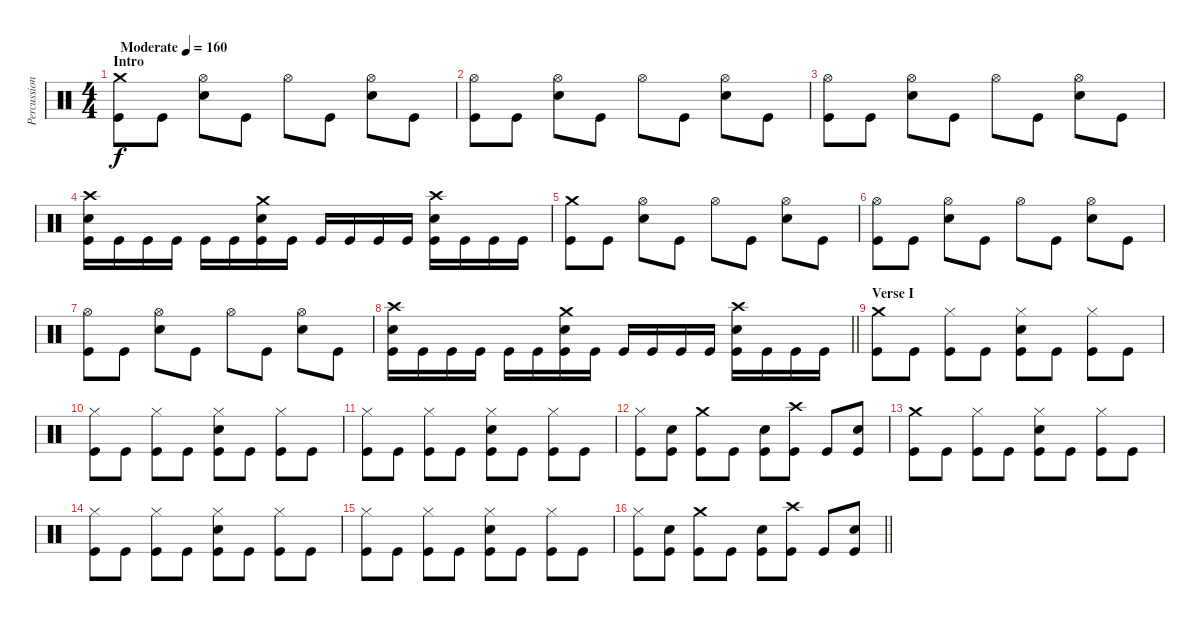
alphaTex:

\track ("Percussion" "Percussion") {instrument percussion}
\staff {score}
\articulation defaults
\ts (4 4)
\section ("" "Intro")
\tempo (160 "Moderate")
\clef neutral
\ks c
("Crash medium (hit)" "Kick (hit)").8{dy f} "Kick (hit)".8 ("Hi-Hat (open)" "Electric Snare (hit)").8 "Kick (hit)".8 "Hi-Hat (open)".8 "Kick (hit)".8 ("Hi-Hat (open)" "Electric Snare (hit)").8 "Kick (hit)".8 |
("Hi-Hat (open)" "Kick (hit)").8 "Kick (hit)".8 ("Hi-Hat (open)" "Electric Snare (hit)").8 "Kick (hit)".8 "Hi-Hat (open)".8 "Kick (hit)".8 ("Hi-Hat (open)" "Electric Snare (hit)").8 "Kick (hit)".8 |
("Hi-Hat (open)" "Kick (hit)").8 "Kick (hit)".8 ("Hi-Hat (open)" "Electric Snare (hit)").8 "Kick (hit)".8 "Hi-Hat (open)".8 "Kick (hit)".8 ("Hi-Hat (open)" "Electric Snare (hit)").8 "Kick (hit)".8 |
("Crash high (hit)" "Electric Snare (hit)" "Kick (hit)").16 "Kick (hit)".16 "Kick (hit)".16 "Kick (hit)".16 "Kick (hit)".16 "Kick (hit)".16 ("Crash medium (hit)" "Electric Snare (hit)" "Kick (hit)").16 "Kick (hit)".16 "Kick (hit)".16 "Kick (hit)".16 "Kick (hit)".16 "Kick (hit)".16 ("Crash high (hit)" "Electric Snare (hit)" "Kick (hit)").16 "Kick (hit)".16 "Kick (hit)".16 "Kick (hit)".16 |
("Crash medium (hit)" "Kick (hit)").8 "Kick (hit)".8 ("Hi-Hat (open)" "Electric Snare (hit)").8 "Kick (hit)".8 "Hi-Hat (open)".8 "Kick (hit)".8 ("Hi-Hat (open)" "Electric Snare (hit)").8 "Kick (hit)".8 |
("Hi-Hat (open)" "Kick (hit)").8 "Kick (hit)".8 ("Hi-Hat (open)" "Electric Snare (hit)").8 "Kick (hit)".8 "Hi-Hat (open)".8 "Kick (hit)".8 ("Hi-Hat (open)" "Electric Snare (hit)").8 "Kick (hit)".8 |
("Hi-Hat (open)" "Kick (hit)").8 "Kick (hit)".8 ("Hi-Hat (open)" "Electric Snare (hit)").8 "Kick (hit)".8 "Hi-Hat (open)".8 "Kick (hit)".8 ("Hi-Hat (open)" "Electric Snare (hit)").8 "Kick (hit)".8 |
\barLineRight lightlight
("Crash high (hit)" "Electric Snare (hit)" "Kick (hit)").16 "Kick (hit)".16 "Kick (hit)".16 "Kick (hit)".16 "Kick (hit)".16 "Kick (hit)".16 ("Crash medium (hit)" "Electric Snare (hit)" "Kick (hit)").16 "Kick (hit)".16 "Kick (hit)".16 "Kick (hit)".16 "Kick (hit)".16 "Kick (hit)".16 ("Crash high (hit)" "Electric Snare (hit)" "Kick (hit)").16 "Kick (hit)".16 "Kick (hit)".16 "Kick (hit)".16 |
\section ("" "Verse I")
("Crash medium (hit)" "Kick (hit)").8 "Kick (hit)".8 ("Hi-Hat (closed)" "Kick (hit)").8 "Kick (hit)".8 ("Hi-Hat (closed)" "Electric Snare (hit)" "Kick (hit)").8 "Kick (hit)".8 ("Hi-Hat (closed)" "Kick (hit)").8 "Kick (hit)".8 |
("Hi-Hat (closed)" "Kick (hit)").8 "Kick (hit)".8 ("Hi-Hat (closed)" "Kick (hit)").8 "Kick (hit)".8 ("Hi-Hat (closed)" "Electric Snare (hit)" "Kick (hit)").8 "Kick (hit)".8 ("Hi-Hat (closed)" "Kick (hit)").8 "Kick (hit)".8 |
("Hi-Hat (closed)" "Kick (hit)").8 "Kick (hit)".8 ("Hi-Hat (closed)" "Kick (hit)").8 "Kick (hit)".8 ("Hi-Hat (closed)" "Electric Snare (hit)" "Kick (hit)").8 "Kick (hit)".8 ("Hi-Hat (closed)" "Kick (hit)").8 "Kick (hit)".8 |
("Hi-Hat (closed)" "Kick (hit)").8 ("Electric Snare (hit)" "Kick (hit)").8 ("Crash medium (hit)" "Kick (hit)").8 "Kick (hit)".8 ("Electric Snare (hit)" "Kick (hit)").8 ("Crash high (hit)" "Kick (hit)").8 "Kick (hit)".8 ("Electric Snare (hit)" "Kick (hit)").8 |
("Crash medium (hit)" "Kick (hit)").8 "Kick (hit)".8 ("Hi-Hat (closed)" "Kick (hit)").8 "Kick (hit)".8 ("Hi-Hat (closed)" "Electric Snare (hit)" "Kick (hit)").8 "Kick (hit)".8 ("Hi-Hat (closed)" "Kick (hit)").8 "Kick (hit)".8 |
("Hi-Hat (closed)" "Kick (hit)").8 "Kick (hit)".8 ("Hi-Hat (closed)" "Kick (hit)").8 "Kick (hit)".8 ("Hi-Hat (closed)" "Electric Snare (hit)" "Kick (hit)").8 "Kick (hit)".8 ("Hi-Hat (closed)" "Kick (hit)").8 "Kick (hit)".8 |
("Hi-Hat (closed)" "Kick (hit)").8 "Kick (hit)".8 ("Hi-Hat (closed)" "Kick (hit)").8 "Kick (hit)".8 ("Hi-Hat (closed)" "Electric Snare (hit)" "Kick (hit)").8 "Kick (hit)".8 ("Hi-Hat (closed)" "Kick (hit)").8 "Kick (hit)".8 |
\barLineRight lightlight
("Hi-Hat (closed)" "Kick (hit)").8 ("Electric Snare (hit)" "Kick (hit)").8 ("Crash medium (hit)" "Kick (hit)").8 "Kick (hit)".8 ("Electric Snare (hit)" "Kick (hit)").8 ("Crash high (hit)" "Kick (hit)").8 "Kick (hit)".8 ("Electric Snare (hit)" "Kick (hit)").8
